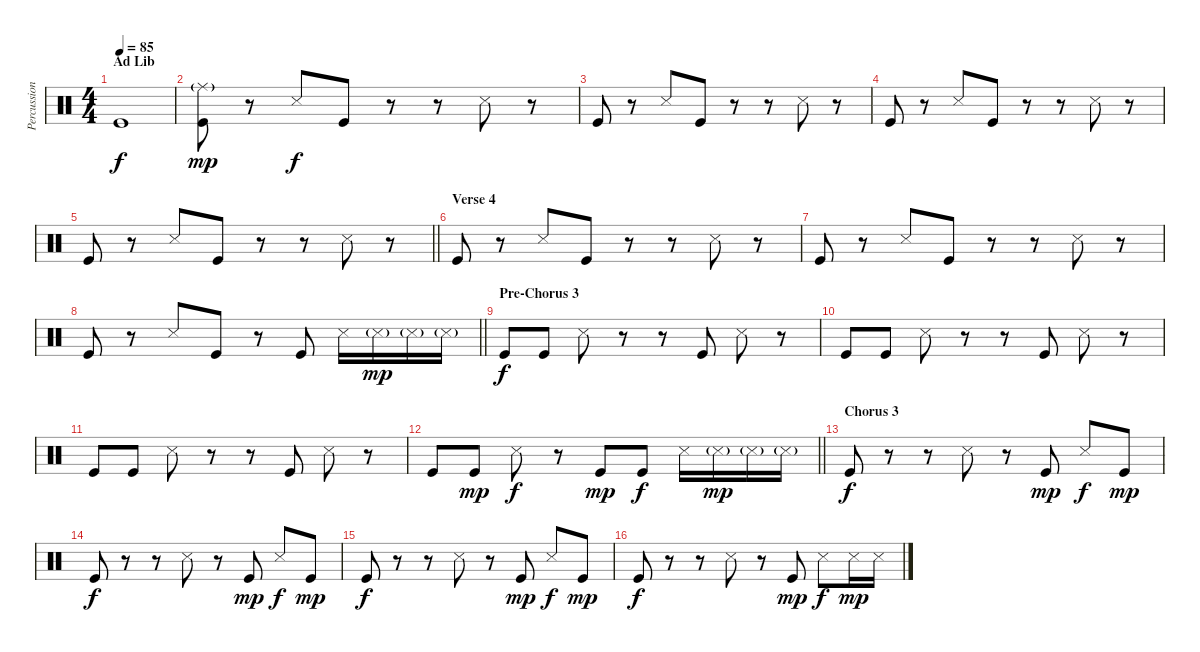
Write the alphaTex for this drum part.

\track ("Percussion" "Percussion") {instrument percussion}
\staff {score}
\articulation defaults
\ts (4 4)
\section ("" "Ad Lib")
\tempo 85
\clef neutral
\ks c "Kick (hit)".1{dy f}
|
("Kick (hit)" "Ride (middle)"{g}).8{dy mp} r.8 "Snare (side stick) 3".8{dy f} "Kick (hit)".8 r.8 r.8 "Snare (side stick) 3".8 r.8 |
"Kick (hit)".8 r.8 "Snare (side stick) 3".8 "Kick (hit)".8 r.8 r.8 "Snare (side stick) 3".8 r.8 |
"Kick (hit)".8 r.8 "Snare (side stick) 3".8 "Kick (hit)".8 r.8 r.8 "Snare (side stick) 3".8 r.8 |
\barLineRight lightlight "Kick (hit)".8
r.8 "Snare (side stick) 3".8 "Kick (hit)".8 r.8 r.8 "Snare (side stick) 3".8 r.8 |
\section ("" "Verse 4")
"Kick (hit)".8 r.8 "Snare (side stick) 3".8 "Kick (hit)".8 r.8 r.8 "Snare (side stick) 3".8 r.8 |
"Kick (hit)".8 r.8 "Snare (side stick) 3".8 "Kick (hit)".8 r.8 r.8 "Snare (side stick) 3".8 r.8 |
\barLineRight lightlight "Kick (hit)".8
r.8 "Snare (side stick) 3".8 "Kick (hit)".8 r.8 "Kick (hit)".8 "Snare (side stick) 3".16 "Snare (side stick) 3"{g}.16{dy mp} "Snare (side stick) 3"{g}.16 "Snare (side stick) 3"{g}.16 |
\section ("" "Pre-Chorus 3")
"Kick (hit)".8{dy f} "Kick (hit)".8 "Snare (side stick) 3".8 r.8 r.8 "Kick (hit)".8 "Snare (side stick) 3".8 r.8 |
"Kick (hit)".8 "Kick (hit)".8 "Snare (side stick) 3".8 r.8 r.8 "Kick (hit)".8 "Snare (side stick) 3".8 r.8 |
"Kick (hit)".8 "Kick (hit)".8 "Snare (side stick) 3".8 r.8 r.8 "Kick (hit)".8 "Snare (side stick) 3".8 r.8 |
\barLineRight lightlight "Kick (hit)".8 "Kick (hit)".8{dy mp} "Snare (side stick) 3".8{dy f}
r.8 "Kick (hit)".8{dy mp} "Kick (hit)".8{dy f} "Snare (side stick) 3".16 "Snare (side stick) 3"{g}.16{dy mp} "Snare (side stick) 3"{g}.16 "Snare (side stick) 3"{g}.16 |
\section ("" "Chorus 3")
"Kick (hit)".8{dy f} r.8 r.8 "Snare (side stick) 3".8 r.8 "Kick (hit)".8{dy mp} "Snare (side stick) 3".8{dy f} "Kick (hit)".8{dy mp} |
"Kick (hit)".8{dy f} r.8 r.8 "Snare (side stick) 3".8 r.8 "Kick (hit)".8{dy mp} "Snare (side stick) 3".8{dy f} "Kick (hit)".8{dy mp} |
"Kick (hit)".8{dy f} r.8 r.8 "Snare (side stick) 3".8 r.8 "Kick (hit)".8{dy mp} "Snare (side stick) 3".8{dy f} "Kick (hit)".8{dy mp} |
"Kick (hit)".8{dy f} r.8 r.8 "Snare (side stick) 3".8 r.8 "Kick (hit)".8{dy mp} "Snare (side stick) 3".8{dy f} "Snare (side stick) 3".16{dy mp} "Snare (side stick) 3".16
